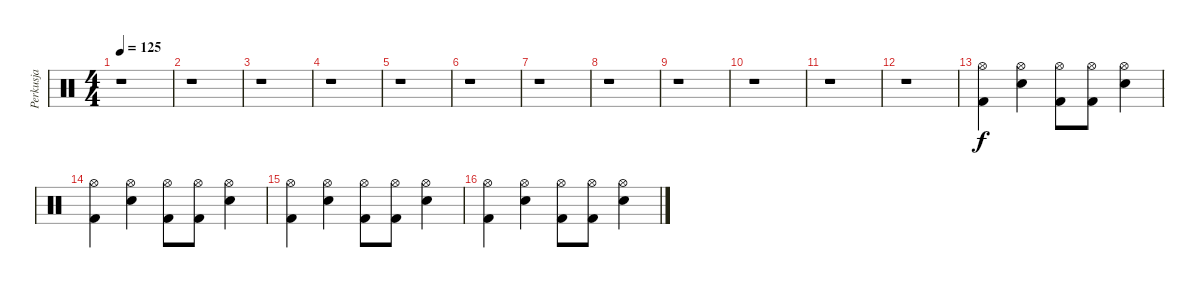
\track ("Perkusja" "Perkusja") {instrument percussion}
\staff {score}
\articulation defaults
\ts (4 4)
\tempo 125
\clef neutral
\ks c
r.1{dy f} |
r.1 |
r.1 |
r.1 |
r.1 |
r.1 |
r.1 |
r.1 |
r.1 |
r.1 |
r.1 |
r.1 |
("Hi-Hat (open)" "Kick (hit) 2").4 ("Hi-Hat (open)" "Electric Snare (hit)").4 ("Hi-Hat (open)" "Kick (hit) 2").8 ("Hi-Hat (open)" "Kick (hit) 2").8 ("Hi-Hat (open)" "Electric Snare (hit)").4 |
("Hi-Hat (open)" "Kick (hit) 2").4 ("Hi-Hat (open)" "Electric Snare (hit)").4 ("Hi-Hat (open)" "Kick (hit) 2").8 ("Hi-Hat (open)" "Kick (hit) 2").8 ("Hi-Hat (open)" "Electric Snare (hit)").4 |
("Hi-Hat (open)" "Kick (hit) 2").4 ("Hi-Hat (open)" "Electric Snare (hit)").4 ("Hi-Hat (open)" "Kick (hit) 2").8 ("Hi-Hat (open)" "Kick (hit) 2").8 ("Hi-Hat (open)" "Electric Snare (hit)").4 |
("Hi-Hat (open)" "Kick (hit) 2").4 ("Hi-Hat (open)" "Electric Snare (hit)").4 ("Hi-Hat (open)" "Kick (hit) 2").8 ("Hi-Hat (open)" "Kick (hit) 2").8 ("Hi-Hat (open)" "Electric Snare (hit)").4
